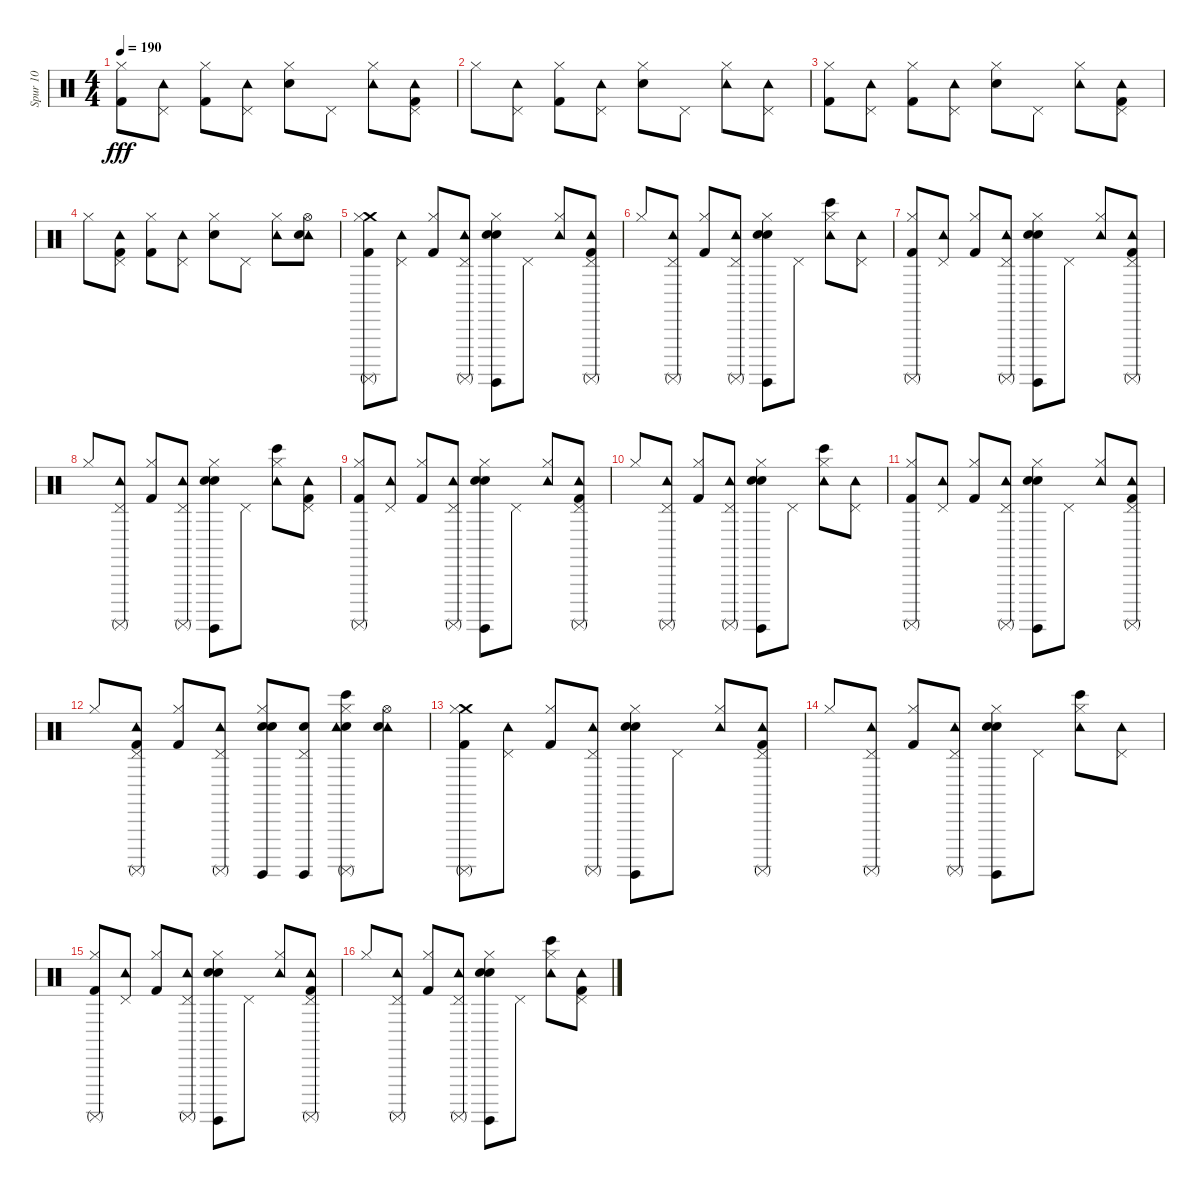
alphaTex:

\track ("Spur 10" "Spur 10") {instrument percussion}
\staff {score}
\articulation defaults
\ts (4 4)
\tempo 190
\clef neutral
\ks c
("Hi-Hat (closed)" "Kick (hit) 2").8{dy fff} ("Pedal Hi-Hat (hit)" "Tambourine (hit)").8 ("Hi-Hat (closed)" "Kick (hit) 2").8 ("Tambourine (hit)" "Pedal Hi-Hat (hit)").8 ("Hi-Hat (closed)" "Electric Snare (hit)").8 "Pedal Hi-Hat (hit)".8 ("Tambourine (hit)" "Hi-Hat (closed)").8 ("Tambourine (hit)" "Pedal Hi-Hat (hit)" "Kick (hit) 2").8 |
"Hi-Hat (closed)".8 ("Tambourine (hit)" "Pedal Hi-Hat (hit)").8 ("Kick (hit) 2" "Hi-Hat (closed)").8 ("Pedal Hi-Hat (hit)" "Tambourine (hit)").8 ("Hi-Hat (closed)" "Electric Snare (hit)").8 "Pedal Hi-Hat (hit)".8 ("Tambourine (hit)" "Hi-Hat (closed)").8 ("Tambourine (hit)" "Pedal Hi-Hat (hit)").8 |
("Hi-Hat (closed)" "Kick (hit) 2").8 ("Pedal Hi-Hat (hit)" "Tambourine (hit)").8 ("Kick (hit) 2" "Hi-Hat (closed)").8 ("Tambourine (hit)" "Pedal Hi-Hat (hit)").8 ("Hi-Hat (closed)" "Electric Snare (hit)").8 "Pedal Hi-Hat (hit)".8 ("Tambourine (hit)" "Hi-Hat (closed)").8 ("Tambourine (hit)" "Pedal Hi-Hat (hit)" "Kick (hit) 2").8 |
"Hi-Hat (closed)".8 ("Tambourine (hit)" "Pedal Hi-Hat (hit)" "Kick (hit) 2").8 ("Hi-Hat (closed)" "Kick (hit) 2").8 ("Pedal Hi-Hat (hit)" "Tambourine (hit)").8 ("Hi-Hat (closed)" "Electric Snare (hit)").8 "Pedal Hi-Hat (hit)".8 ("Tambourine (hit)" "Hi-Hat (closed)").8 ("Tambourine (hit)" "Hi-Hat (open)" "Electric Snare (hit)").8 |
("Surdo (mute)" "Crash medium (hit)" "Hi-Hat (closed)" "Kick (hit) 2").8 ("Tambourine (hit)" "Pedal Hi-Hat (hit)").8 ("Kick (hit) 2" "Hi-Hat (closed)").8 ("Surdo (mute)" "Tambourine (hit)" "Pedal Hi-Hat (hit)").8 ("Surdo (hit)" "Hand Clap (hit)" "Hi-Hat (closed)" "Electric Snare (hit)").8 "Pedal Hi-Hat (hit)".8 ("Tambourine (hit)" "Hi-Hat (closed)").8 ("Surdo (mute)" "Tambourine (hit)" "Pedal Hi-Hat (hit)" "Kick (hit) 2").8 |
"Hi-Hat (closed)".8 ("Surdo (mute)" "Tambourine (hit)" "Pedal Hi-Hat (hit)").8 ("Hi-Hat (closed)" "Kick (hit) 2").8 ("Surdo (mute)" "Pedal Hi-Hat (hit)" "Tambourine (hit)").8 ("Hand Clap (hit)" "Surdo (hit)" "Hi-Hat (closed)" "Electric Snare (hit)").8 "Pedal Hi-Hat (hit)".8 ("Bongo High (hit)" "Tambourine (hit)" "Hi-Hat (closed)").8 ("Tambourine (hit)" "Pedal Hi-Hat (hit)").8 |
("Surdo (mute)" "Hi-Hat (closed)" "Kick (hit) 2").8 ("Tambourine (hit)" "Pedal Hi-Hat (hit)").8 ("Hi-Hat (closed)" "Kick (hit) 2").8 ("Surdo (mute)" "Tambourine (hit)" "Pedal Hi-Hat (hit)").8 ("Surdo (hit)" "Hand Clap (hit)" "Hi-Hat (closed)" "Electric Snare (hit)").8 "Pedal Hi-Hat (hit)".8 ("Tambourine (hit)" "Hi-Hat (closed)").8 ("Surdo (mute)" "Tambourine (hit)" "Pedal Hi-Hat (hit)" "Kick (hit) 2").8 |
"Hi-Hat (closed)".8 ("Surdo (mute)" "Tambourine (hit)" "Pedal Hi-Hat (hit)").8 ("Hi-Hat (closed)" "Kick (hit) 2").8 ("Surdo (mute)" "Tambourine (hit)" "Pedal Hi-Hat (hit)").8 ("Hand Clap (hit)" "Surdo (hit)" "Hi-Hat (closed)" "Electric Snare (hit)").8 "Pedal Hi-Hat (hit)".8 ("Bongo High (hit)" "Tambourine (hit)" "Hi-Hat (closed)").8 ("Tambourine (hit)" "Pedal Hi-Hat (hit)" "Kick (hit) 2").8 |
("Surdo (mute)" "Hi-Hat (closed)" "Kick (hit) 2").8 ("Tambourine (hit)" "Pedal Hi-Hat (hit)").8 ("Hi-Hat (closed)" "Kick (hit) 2").8 ("Surdo (mute)" "Pedal Hi-Hat (hit)" "Tambourine (hit)").8 ("Hand Clap (hit)" "Surdo (hit)" "Hi-Hat (closed)" "Electric Snare (hit)").8 "Pedal Hi-Hat (hit)".8 ("Tambourine (hit)" "Hi-Hat (closed)").8 ("Surdo (mute)" "Pedal Hi-Hat (hit)" "Kick (hit) 2" "Tambourine (hit)").8 |
"Hi-Hat (closed)".8 ("Surdo (mute)" "Tambourine (hit)" "Pedal Hi-Hat (hit)").8 ("Hi-Hat (closed)" "Kick (hit) 2").8 ("Surdo (mute)" "Pedal Hi-Hat (hit)" "Tambourine (hit)").8 ("Hand Clap (hit)" "Surdo (hit)" "Hi-Hat (closed)" "Electric Snare (hit)").8 "Pedal Hi-Hat (hit)".8 ("Bongo High (hit)" "Tambourine (hit)" "Hi-Hat (closed)").8 ("Pedal Hi-Hat (hit)" "Tambourine (hit)").8 |
("Surdo (mute)" "Hi-Hat (closed)" "Kick (hit) 2").8 ("Tambourine (hit)" "Pedal Hi-Hat (hit)").8 ("Hi-Hat (closed)" "Kick (hit) 2").8 ("Surdo (mute)" "Pedal Hi-Hat (hit)" "Tambourine (hit)").8 ("Surdo (hit)" "Hand Clap (hit)" "Hi-Hat (closed)" "Electric Snare (hit)").8 "Pedal Hi-Hat (hit)".8 ("Tambourine (hit)" "Hi-Hat (closed)").8 ("Surdo (mute)" "Pedal Hi-Hat (hit)" "Kick (hit) 2" "Tambourine (hit)").8 |
"Hi-Hat (closed)".8 ("Surdo (mute)" "Tambourine (hit)" "Kick (hit) 2" "Pedal Hi-Hat (hit)").8 ("Kick (hit) 2" "Hi-Hat (closed)").8 ("Surdo (mute)" "Tambourine (hit)" "Pedal Hi-Hat (hit)").8 ("Hand Clap (hit)" "Surdo (hit)" "Electric Snare (hit)" "Hi-Hat (closed)").8 ("Surdo (hit)" "Electric Snare (hit)" "Pedal Hi-Hat (hit)").8 ("Surdo (mute)" "Bongo High (hit)" "Electric Snare (hit)" "Tambourine (hit)" "Hi-Hat (closed)").8 ("Tambourine (hit)" "Electric Snare (hit)" "Hi-Hat (open)").8 |
("Surdo (mute)" "Crash medium (hit)" "Hi-Hat (closed)" "Kick (hit) 2").8 ("Tambourine (hit)" "Pedal Hi-Hat (hit)").8 ("Kick (hit) 2" "Hi-Hat (closed)").8 ("Surdo (mute)" "Tambourine (hit)" "Pedal Hi-Hat (hit)").8 ("Surdo (hit)" "Hand Clap (hit)" "Hi-Hat (closed)" "Electric Snare (hit)").8 "Pedal Hi-Hat (hit)".8 ("Tambourine (hit)" "Hi-Hat (closed)").8 ("Surdo (mute)" "Tambourine (hit)" "Pedal Hi-Hat (hit)" "Kick (hit) 2").8 |
"Hi-Hat (closed)".8 ("Surdo (mute)" "Tambourine (hit)" "Pedal Hi-Hat (hit)").8 ("Hi-Hat (closed)" "Kick (hit) 2").8 ("Surdo (mute)" "Pedal Hi-Hat (hit)" "Tambourine (hit)").8 ("Hand Clap (hit)" "Surdo (hit)" "Hi-Hat (closed)" "Electric Snare (hit)").8 "Pedal Hi-Hat (hit)".8 ("Bongo High (hit)" "Tambourine (hit)" "Hi-Hat (closed)").8 ("Tambourine (hit)" "Pedal Hi-Hat (hit)").8 |
("Surdo (mute)" "Hi-Hat (closed)" "Kick (hit) 2").8 ("Tambourine (hit)" "Pedal Hi-Hat (hit)").8 ("Hi-Hat (closed)" "Kick (hit) 2").8 ("Surdo (mute)" "Tambourine (hit)" "Pedal Hi-Hat (hit)").8 ("Surdo (hit)" "Hand Clap (hit)" "Hi-Hat (closed)" "Electric Snare (hit)").8 "Pedal Hi-Hat (hit)".8 ("Tambourine (hit)" "Hi-Hat (closed)").8 ("Surdo (mute)" "Tambourine (hit)" "Pedal Hi-Hat (hit)" "Kick (hit) 2").8 |
"Hi-Hat (closed)".8 ("Surdo (mute)" "Tambourine (hit)" "Pedal Hi-Hat (hit)").8 ("Hi-Hat (closed)" "Kick (hit) 2").8 ("Surdo (mute)" "Tambourine (hit)" "Pedal Hi-Hat (hit)").8 ("Hand Clap (hit)" "Surdo (hit)" "Hi-Hat (closed)" "Electric Snare (hit)").8 "Pedal Hi-Hat (hit)".8 ("Bongo High (hit)" "Tambourine (hit)" "Hi-Hat (closed)").8 ("Tambourine (hit)" "Pedal Hi-Hat (hit)" "Kick (hit) 2").8
